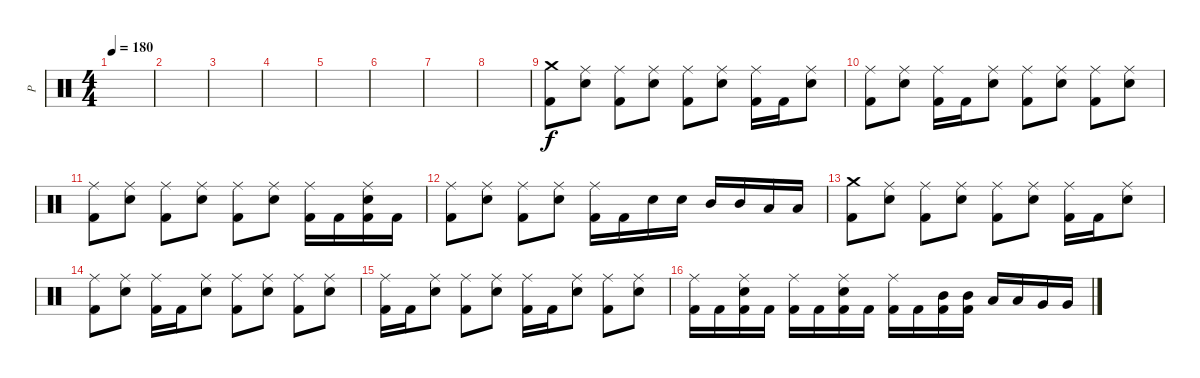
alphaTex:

\track ("P" "P") {instrument percussion}
\staff {score}
\articulation defaults
\ts (4 4)
\tempo 180
\clef neutral
\ks c
|
|
|
|
|
|
|
|
("Crash medium (hit)" "Kick (hit) 2").8 ("Ride (middle)" "Electric Snare (hit)").8 ("Ride (middle)" "Kick (hit) 2").8 ("Ride (middle)" "Electric Snare (hit)").8 ("Ride (middle)" "Kick (hit) 2").8 ("Ride (middle)" "Electric Snare (hit)").8 ("Ride (middle)" "Kick (hit) 2").16 "Kick (hit) 2".16 ("Ride (middle)" "Electric Snare (hit)").8 |
("Ride (middle)" "Kick (hit) 2").8 ("Ride (middle)" "Electric Snare (hit)").8 ("Ride (middle)" "Kick (hit) 2").16 "Kick (hit) 2".16 ("Ride (middle)" "Electric Snare (hit)").8 ("Ride (middle)" "Kick (hit) 2").8 ("Ride (middle)" "Electric Snare (hit)").8 ("Ride (middle)" "Kick (hit) 2").8 ("Ride (middle)" "Electric Snare (hit)").8 |
("Ride (middle)" "Kick (hit) 2").8 ("Ride (middle)" "Electric Snare (hit)").8 ("Ride (middle)" "Kick (hit) 2").8 ("Ride (middle)" "Electric Snare (hit)").8 ("Ride (middle)" "Kick (hit) 2").8 ("Ride (middle)" "Electric Snare (hit)").8 ("Ride (middle)" "Kick (hit) 2").16 "Kick (hit) 2".16 ("Ride (middle)" "Electric Snare (hit)" "Kick (hit) 2").16 "Kick (hit) 2".16 |
("Ride (middle)" "Kick (hit) 2").8 ("Ride (middle)" "Electric Snare (hit)").8 ("Ride (middle)" "Kick (hit) 2").8 ("Ride (middle)" "Electric Snare (hit)").8 ("Ride (middle)" "Kick (hit) 2").16 "Kick (hit) 2".16 "Electric Snare (hit)".16 "Electric Snare (hit)".16 "Mid Tom (hit)".16 "Mid Tom (hit)".16 "Low Tom (hit)".16 "Low Tom (hit)".16 |
("Crash medium (hit)" "Kick (hit) 2").8 ("Ride (middle)" "Electric Snare (hit)").8 ("Ride (middle)" "Kick (hit) 2").8 ("Ride (middle)" "Electric Snare (hit)").8 ("Ride (middle)" "Kick (hit) 2").8 ("Ride (middle)" "Electric Snare (hit)").8 ("Ride (middle)" "Kick (hit) 2").16 "Kick (hit) 2".16 ("Ride (middle)" "Electric Snare (hit)").8 |
("Ride (middle)" "Kick (hit) 2").8 ("Ride (middle)" "Electric Snare (hit)").8 ("Ride (middle)" "Kick (hit) 2").16 "Kick (hit) 2".16 ("Ride (middle)" "Electric Snare (hit)").8 ("Ride (middle)" "Kick (hit) 2").8 ("Ride (middle)" "Electric Snare (hit)").8 ("Ride (middle)" "Kick (hit) 2").8 ("Ride (middle)" "Electric Snare (hit)").8 |
("Ride (middle)" "Kick (hit) 2").16 "Kick (hit) 2".16 ("Ride (middle)" "Electric Snare (hit)").8 ("Ride (middle)" "Kick (hit) 2").8 ("Ride (middle)" "Electric Snare (hit)").8 ("Ride (middle)" "Kick (hit) 2").16 "Kick (hit) 2".16 ("Ride (middle)" "Electric Snare (hit)").8 ("Ride (middle)" "Kick (hit) 2").8 ("Ride (middle)" "Electric Snare (hit)").8 |
("Ride (middle)" "Kick (hit) 2").16 "Kick (hit) 2".16 ("Ride (middle)" "Electric Snare (hit)" "Kick (hit) 2").16 "Kick (hit) 2".16 ("Ride (middle)" "Kick (hit) 2").16 "Kick (hit) 2".16 ("Ride (middle)" "Electric Snare (hit)" "Kick (hit) 2").16 "Kick (hit) 2".16 ("Ride (middle)" "Kick (hit) 2").16 "Kick (hit) 2".16 ("Mid Tom (hit)" "Kick (hit) 2").16 ("Mid Tom (hit)" "Kick (hit) 2").16 "Low Tom (hit)".16 "Low Tom (hit)".16 "Very Low Tom (hit)".16 "Very Low Tom (hit)".16
